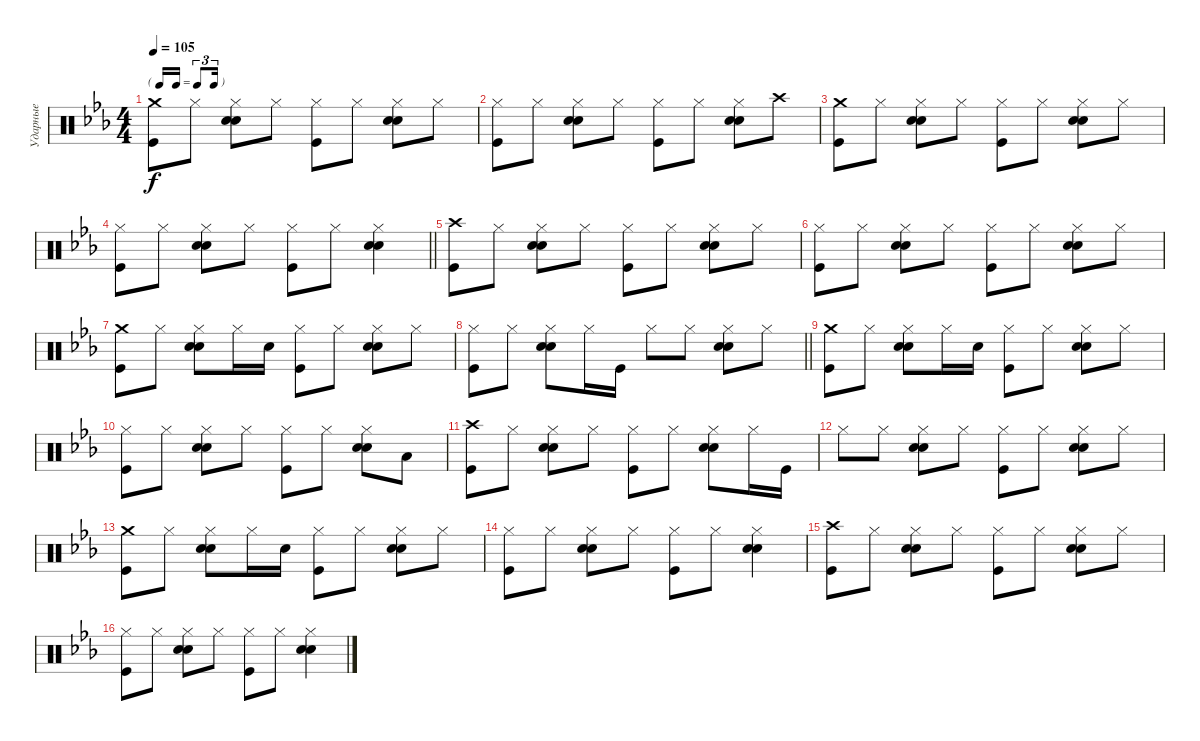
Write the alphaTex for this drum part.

\track ("Ударные" "Ударные") {instrument percussion}
\staff {score}
\articulation defaults
\ts (4 4)
\tf triplet16th
\tempo 105
\clef neutral
\ks cminor
("Kick (hit)" "Crash medium (hit)").8{dy f} "Hi-Hat (closed)".8 ("Snare (hit) 2" "Hi-Hat (closed)" "Hand Clap (hit)").8 "Hi-Hat (closed)".8 ("Kick (hit)" "Hi-Hat (closed)").8 "Hi-Hat (closed)".8 ("Snare (hit) 2" "Hi-Hat (closed)" "Hand Clap (hit)").8 "Hi-Hat (closed)".8 |
("Kick (hit)" "Hi-Hat (closed)").8 "Hi-Hat (closed)".8 ("Snare (hit) 2" "Hi-Hat (closed)" "Hand Clap (hit)").8 "Hi-Hat (closed)".8 ("Kick (hit)" "Hi-Hat (closed)").8 "Hi-Hat (closed)".8 ("Snare (hit) 2" "Hi-Hat (closed)" "Hand Clap (hit)").8 "Crash high (hit)".8 |
("Kick (hit)" "Crash medium (hit)").8 "Hi-Hat (closed)".8 ("Snare (hit) 2" "Hi-Hat (closed)" "Hand Clap (hit)").8 "Hi-Hat (closed)".8 ("Kick (hit)" "Hi-Hat (closed)").8 "Hi-Hat (closed)".8 ("Snare (hit) 2" "Hi-Hat (closed)" "Hand Clap (hit)").8 "Hi-Hat (closed)".8 |
\barLineRight lightlight
("Kick (hit)" "Hi-Hat (closed)").8 "Hi-Hat (closed)".8 ("Snare (hit) 2" "Hi-Hat (closed)" "Hand Clap (hit)").8 "Hi-Hat (closed)".8 ("Kick (hit)" "Hi-Hat (closed)").8 "Hi-Hat (closed)".8 ("Snare (hit) 2" "Hi-Hat (closed)" "Hand Clap (hit)").4 |
("Kick (hit)" "Crash high (hit)").8 "Hi-Hat (closed)".8 ("Snare (hit) 2" "Hi-Hat (closed)" "Hand Clap (hit)").8 "Hi-Hat (closed)".8 ("Kick (hit)" "Hi-Hat (closed)").8 "Hi-Hat (closed)".8 ("Snare (hit) 2" "Hi-Hat (closed)" "Hand Clap (hit)").8 "Hi-Hat (closed)".8 |
("Kick (hit)" "Hi-Hat (closed)").8 "Hi-Hat (closed)".8 ("Snare (hit) 2" "Hi-Hat (closed)" "Hand Clap (hit)").8 "Hi-Hat (closed)".8 ("Kick (hit)" "Hi-Hat (closed)").8 "Hi-Hat (closed)".8 ("Snare (hit) 2" "Hi-Hat (closed)" "Hand Clap (hit)").8 "Hi-Hat (closed)".8 |
("Kick (hit)" "Crash medium (hit)").8 "Hi-Hat (closed)".8 ("Snare (hit) 2" "Hi-Hat (closed)" "Hand Clap (hit)").8 "Hi-Hat (closed)".16 "Snare (hit) 2".16 ("Hi-Hat (closed)" "Kick (hit)").8 "Hi-Hat (closed)".8 ("Snare (hit) 2" "Hi-Hat (closed)" "Hand Clap (hit)").8 "Hi-Hat (closed)".8 |
\barLineRight lightlight
("Kick (hit)" "Hi-Hat (closed)").8 "Hi-Hat (closed)".8 ("Snare (hit) 2" "Hi-Hat (closed)" "Hand Clap (hit)").8 "Hi-Hat (closed)".16 "Kick (hit)".16 "Hi-Hat (closed)".8 "Hi-Hat (closed)".8 ("Snare (hit) 2" "Hi-Hat (closed)" "Hand Clap (hit)").8 "Hi-Hat (closed)".8 |
("Kick (hit)" "Crash medium (hit)").8 "Hi-Hat (closed)".8 ("Snare (hit) 2" "Hi-Hat (closed)" "Hand Clap (hit)").8 "Hi-Hat (closed)".16 "Snare (hit) 2".16 ("Hi-Hat (closed)" "Kick (hit)").8 "Hi-Hat (closed)".8 ("Snare (hit) 2" "Hi-Hat (closed)" "Hand Clap (hit)").8 "Hi-Hat (closed)".8 |
("Kick (hit)" "Hi-Hat (closed)").8 "Hi-Hat (closed)".8 ("Snare (hit) 2" "Hi-Hat (closed)" "Hand Clap (hit)").8 "Hi-Hat (closed)".8 ("Kick (hit)" "Hi-Hat (closed)").8 "Hi-Hat (closed)".8 ("Snare (hit) 2" "Hi-Hat (closed)" "Hand Clap (hit)").8 "Low Tom (hit)".8 |
("Kick (hit)" "Crash high (hit)").8 "Hi-Hat (closed)".8 ("Snare (hit) 2" "Hi-Hat (closed)" "Hand Clap (hit)").8 "Hi-Hat (closed)".8 ("Kick (hit)" "Hi-Hat (closed)").8 "Hi-Hat (closed)".8 ("Snare (hit) 2" "Hi-Hat (closed)" "Hand Clap (hit)").8 "Hi-Hat (closed)".16 "Kick (hit)".16 |
"Hi-Hat (closed)".8 "Hi-Hat (closed)".8 ("Snare (hit) 2" "Hi-Hat (closed)" "Hand Clap (hit)").8 "Hi-Hat (closed)".8 ("Kick (hit)" "Hi-Hat (closed)").8 "Hi-Hat (closed)".8 ("Snare (hit) 2" "Hi-Hat (closed)" "Hand Clap (hit)").8 "Hi-Hat (closed)".8 |
("Kick (hit)" "Crash medium (hit)").8 "Hi-Hat (closed)".8 ("Snare (hit) 2" "Hi-Hat (closed)" "Hand Clap (hit)").8 "Hi-Hat (closed)".16 "Snare (hit) 2".16 ("Hi-Hat (closed)" "Kick (hit)").8 "Hi-Hat (closed)".8 ("Snare (hit) 2" "Hi-Hat (closed)" "Hand Clap (hit)").8 "Hi-Hat (closed)".8 |
("Kick (hit)" "Hi-Hat (closed)").8 "Hi-Hat (closed)".8 ("Snare (hit) 2" "Hi-Hat (closed)" "Hand Clap (hit)").8 "Hi-Hat (closed)".8 ("Kick (hit)" "Hi-Hat (closed)").8 "Hi-Hat (closed)".8 ("Snare (hit) 2" "Hi-Hat (closed)" "Hand Clap (hit)").4 |
("Kick (hit)" "Crash high (hit)").8 "Hi-Hat (closed)".8 ("Snare (hit) 2" "Hi-Hat (closed)" "Hand Clap (hit)").8 "Hi-Hat (closed)".8 ("Kick (hit)" "Hi-Hat (closed)").8 "Hi-Hat (closed)".8 ("Snare (hit) 2" "Hi-Hat (closed)" "Hand Clap (hit)").8 "Hi-Hat (closed)".8 |
("Kick (hit)" "Hi-Hat (closed)").8 "Hi-Hat (closed)".8 ("Snare (hit) 2" "Hi-Hat (closed)" "Hand Clap (hit)").8 "Hi-Hat (closed)".8 ("Kick (hit)" "Hi-Hat (closed)").8 "Hi-Hat (closed)".8 ("Snare (hit) 2" "Hi-Hat (closed)" "Hand Clap (hit)").4
